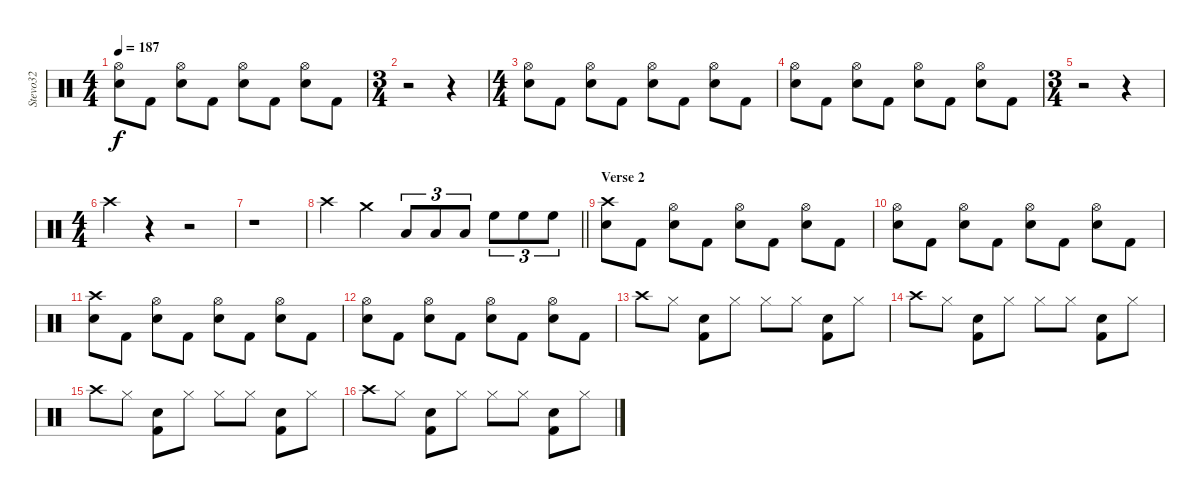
\track ("Stevo32" "Stevo32") {instrument percussion}
\staff {score}
\articulation defaults
\ts (4 4)
\tempo 187
\clef neutral
\ks c
("Snare (hit) 2" "Hi-Hat (open)").8{dy f} "Kick (hit) 2".8 ("Snare (hit) 2" "Hi-Hat (open)").8 "Kick (hit) 2".8 ("Snare (hit) 2" "Hi-Hat (open)").8 "Kick (hit) 2".8 ("Snare (hit) 2" "Hi-Hat (open)").8 "Kick (hit) 2".8 |
\ts (3 4)
r.2 r.4 |
\ts (4 4)
("Snare (hit) 2" "Hi-Hat (open)").8 "Kick (hit) 2".8 ("Snare (hit) 2" "Hi-Hat (open)").8 "Kick (hit) 2".8 ("Snare (hit) 2" "Hi-Hat (open)").8 "Kick (hit) 2".8 ("Snare (hit) 2" "Hi-Hat (open)").8 "Kick (hit) 2".8 |
("Snare (hit) 2" "Hi-Hat (open)").8 "Kick (hit) 2".8 ("Snare (hit) 2" "Hi-Hat (open)").8 "Kick (hit) 2".8 ("Snare (hit) 2" "Hi-Hat (open)").8 "Kick (hit) 2".8 ("Snare (hit) 2" "Hi-Hat (open)").8 "Kick (hit) 2".8 |
\ts (3 4)
r.2 r.4 |
\ts (4 4)
"Crash high (hit)".4 r.4 r.2 |
r.1 |
\barLineRight lightlight "Crash high (hit)".4 "Crash medium (hit)".4 "Low Tom (hit)".8{tu (3 2)} "Low Tom (hit)".8{tu (3 2)} "Low Tom (hit)".8{tu (3 2)} "High Floor Tom (hit)".8{tu (3 2)} "High Floor Tom (hit)".8{tu (3 2)} "High Floor Tom (hit)".8{tu (3 2)}
|
\section ("" "Verse 2")
("Crash high (hit)" "Snare (hit) 2").8 "Kick (hit) 2".8 ("Snare (hit) 2" "Hi-Hat (open)").8 "Kick (hit) 2".8 ("Snare (hit) 2" "Hi-Hat (open)").8 "Kick (hit) 2".8 ("Snare (hit) 2" "Hi-Hat (open)").8 "Kick (hit) 2".8 |
("Snare (hit) 2" "Hi-Hat (open)").8 "Kick (hit) 2".8 ("Snare (hit) 2" "Hi-Hat (open)").8 "Kick (hit) 2".8 ("Snare (hit) 2" "Hi-Hat (open)").8 "Kick (hit) 2".8 ("Snare (hit) 2" "Hi-Hat (open)").8 "Kick (hit) 2".8 |
("Crash high (hit)" "Snare (hit) 2").8 "Kick (hit) 2".8 ("Snare (hit) 2" "Hi-Hat (open)").8 "Kick (hit) 2".8 ("Snare (hit) 2" "Hi-Hat (open)").8 "Kick (hit) 2".8 ("Snare (hit) 2" "Hi-Hat (open)").8 "Kick (hit) 2".8 |
("Snare (hit) 2" "Hi-Hat (open)").8 "Kick (hit) 2".8 ("Snare (hit) 2" "Hi-Hat (open)").8 "Kick (hit) 2".8 ("Snare (hit) 2" "Hi-Hat (open)").8 "Kick (hit) 2".8 ("Snare (hit) 2" "Hi-Hat (open)").8 "Kick (hit) 2".8 |
"Crash high (hit)".8 "Hi-Hat (closed)".8 ("Kick (hit) 2" "Snare (hit) 2").8 "Hi-Hat (closed)".8 "Hi-Hat (closed)".8 "Hi-Hat (closed)".8 ("Kick (hit) 2" "Snare (hit) 2").8 "Hi-Hat (closed)".8 |
"Crash high (hit)".8 "Hi-Hat (closed)".8 ("Kick (hit) 2" "Snare (hit) 2").8 "Hi-Hat (closed)".8 "Hi-Hat (closed)".8 "Hi-Hat (closed)".8 ("Kick (hit) 2" "Snare (hit) 2").8 "Hi-Hat (closed)".8 |
"Crash high (hit)".8 "Hi-Hat (closed)".8 ("Kick (hit) 2" "Snare (hit) 2").8 "Hi-Hat (closed)".8 "Hi-Hat (closed)".8 "Hi-Hat (closed)".8 ("Kick (hit) 2" "Snare (hit) 2").8 "Hi-Hat (closed)".8 |
"Crash high (hit)".8 "Hi-Hat (closed)".8 ("Kick (hit) 2" "Snare (hit) 2").8 "Hi-Hat (closed)".8 "Hi-Hat (closed)".8 "Hi-Hat (closed)".8 ("Kick (hit) 2" "Snare (hit) 2").8 "Hi-Hat (closed)".8
